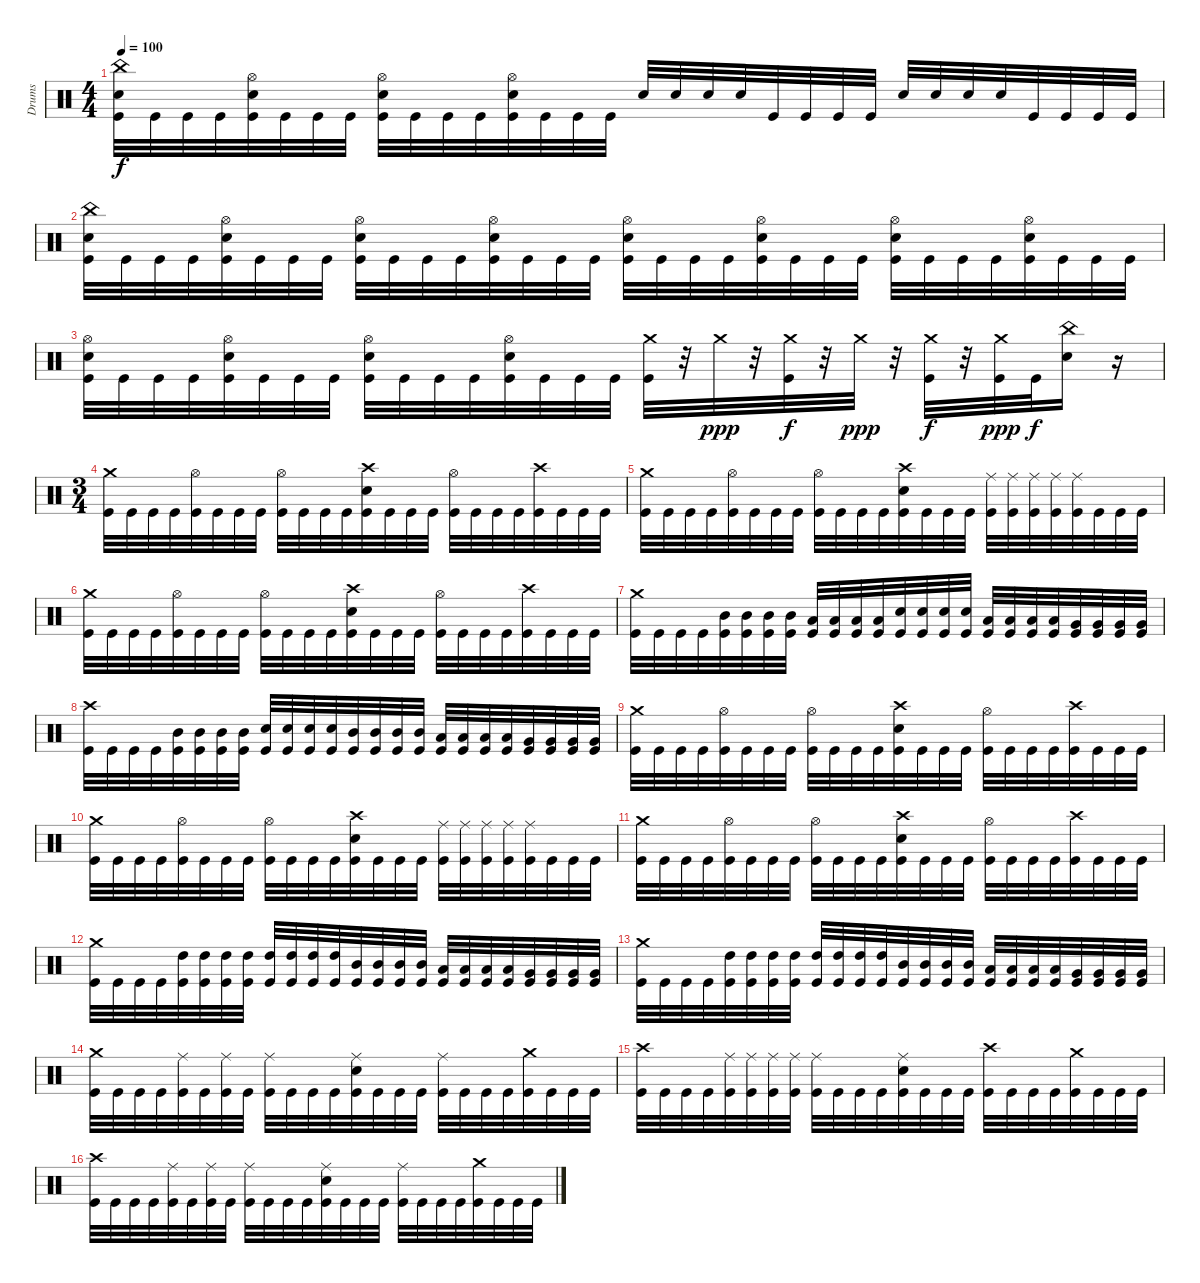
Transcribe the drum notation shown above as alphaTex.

\track ("Drums" "Drums") {instrument percussion}
\staff {score}
\articulation defaults
\ts (4 4)
\tempo 100
\clef neutral
\ks c
("China (hit)" "Snare (hit) 2" "Kick (hit)").32{dy f} "Kick (hit)".32 "Kick (hit)".32 "Kick (hit)".32 ("Hi-Hat (open)" "Snare (hit) 2" "Kick (hit)").32 "Kick (hit)".32 "Kick (hit)".32 "Kick (hit)".32 ("Hi-Hat (open)" "Snare (hit) 2" "Kick (hit)").32 "Kick (hit)".32 "Kick (hit)".32 "Kick (hit)".32 ("Hi-Hat (open)" "Snare (hit) 2" "Kick (hit)").32 "Kick (hit)".32 "Kick (hit)".32 "Kick (hit)".32 "Snare (hit) 2".32 "Snare (hit) 2".32 "Snare (hit) 2".32 "Snare (hit) 2".32 "Kick (hit)".32 "Kick (hit)".32 "Kick (hit)".32 "Kick (hit)".32 "Snare (hit) 2".32 "Snare (hit) 2".32 "Snare (hit) 2".32 "Snare (hit) 2".32 "Kick (hit)".32 "Kick (hit)".32 "Kick (hit)".32 "Kick (hit)".32 |
("China (hit)" "Snare (hit) 2" "Kick (hit)").32 "Kick (hit)".32 "Kick (hit)".32 "Kick (hit)".32 ("Hi-Hat (open)" "Snare (hit) 2" "Kick (hit)").32 "Kick (hit)".32 "Kick (hit)".32 "Kick (hit)".32 ("Hi-Hat (open)" "Snare (hit) 2" "Kick (hit)").32 "Kick (hit)".32 "Kick (hit)".32 "Kick (hit)".32 ("Hi-Hat (open)" "Snare (hit) 2" "Kick (hit)").32 "Kick (hit)".32 "Kick (hit)".32 "Kick (hit)".32 ("Hi-Hat (open)" "Snare (hit) 2" "Kick (hit)").32 "Kick (hit)".32 "Kick (hit)".32 "Kick (hit)".32 ("Hi-Hat (open)" "Snare (hit) 2" "Kick (hit)").32 "Kick (hit)".32 "Kick (hit)".32 "Kick (hit)".32 ("Hi-Hat (open)" "Snare (hit) 2" "Kick (hit)").32 "Kick (hit)".32 "Kick (hit)".32 "Kick (hit)".32 ("Hi-Hat (open)" "Snare (hit) 2" "Kick (hit)").32 "Kick (hit)".32 "Kick (hit)".32 "Kick (hit)".32 |
("Hi-Hat (open)" "Snare (hit) 2" "Kick (hit)").32 "Kick (hit)".32 "Kick (hit)".32 "Kick (hit)".32 ("Hi-Hat (open)" "Snare (hit) 2" "Kick (hit)").32 "Kick (hit)".32 "Kick (hit)".32 "Kick (hit)".32 ("Hi-Hat (open)" "Snare (hit) 2" "Kick (hit)").32 "Kick (hit)".32 "Kick (hit)".32 "Kick (hit)".32 ("Hi-Hat (open)" "Snare (hit) 2" "Kick (hit)").32 "Kick (hit)".32 "Kick (hit)".32 "Kick (hit)".32 ("Crash medium (hit)" "Kick (hit)").32 r.32 "Crash medium (hit)".32{dy ppp} r.32 ("Crash medium (hit)" "Kick (hit)").32{dy f} r.32 "Crash medium (hit)".32{dy ppp} r.32 ("Crash medium (hit)" "Kick (hit)").32{dy f} r.32 ("Crash medium (hit)" "Kick (hit)").32{dy ppp} "Kick (hit)".32{dy f} ("China (hit)" "Snare (hit) 2").16 r.16 |
\ts (3 4)
("Crash medium (hit)" "Kick (hit)").32 "Kick (hit)".32 "Kick (hit)".32 "Kick (hit)".32 ("Hi-Hat (open)" "Kick (hit)").32 "Kick (hit)".32 "Kick (hit)".32 "Kick (hit)".32 ("Hi-Hat (open)" "Kick (hit)").32 "Kick (hit)".32 "Kick (hit)".32 "Kick (hit)".32 ("Crash high (hit)" "Snare (hit) 2" "Kick (hit)").32 "Kick (hit)".32 "Kick (hit)".32 "Kick (hit)".32 ("Hi-Hat (open)" "Kick (hit)").32 "Kick (hit)".32 "Kick (hit)".32 "Kick (hit)".32 ("Crash high (hit)" "Kick (hit)").32 "Kick (hit)".32 "Kick (hit)".32 "Kick (hit)".32 |
("Crash medium (hit)" "Kick (hit)").32 "Kick (hit)".32 "Kick (hit)".32 "Kick (hit)".32 ("Hi-Hat (open)" "Kick (hit)").32 "Kick (hit)".32 "Kick (hit)".32 "Kick (hit)".32 ("Hi-Hat (open)" "Kick (hit)").32 "Kick (hit)".32 "Kick (hit)".32 "Kick (hit)".32 ("Crash high (hit)" "Snare (hit) 2" "Kick (hit)").32 "Kick (hit)".32 "Kick (hit)".32 "Kick (hit)".32 ("Ride (middle)" "Kick (hit)").32 ("Ride (middle)" "Kick (hit)").32 ("Ride (middle)" "Kick (hit)").32 ("Ride (middle)" "Kick (hit)").32 ("Ride (middle)" "Kick (hit)").32 "Kick (hit)".32 "Kick (hit)".32 "Kick (hit)".32 |
("Crash medium (hit)" "Kick (hit)").32 "Kick (hit)".32 "Kick (hit)".32 "Kick (hit)".32 ("Hi-Hat (open)" "Kick (hit)").32 "Kick (hit)".32 "Kick (hit)".32 "Kick (hit)".32 ("Hi-Hat (open)" "Kick (hit)").32 "Kick (hit)".32 "Kick (hit)".32 "Kick (hit)".32 ("Crash high (hit)" "Snare (hit) 2" "Kick (hit)").32 "Kick (hit)".32 "Kick (hit)".32 "Kick (hit)".32 ("Hi-Hat (open)" "Kick (hit)").32 "Kick (hit)".32 "Kick (hit)".32 "Kick (hit)".32 ("Crash high (hit)" "Kick (hit)").32 "Kick (hit)".32 "Kick (hit)".32 "Kick (hit)".32 |
("Crash medium (hit)" "Kick (hit)").32 "Kick (hit)".32 "Kick (hit)".32 "Kick (hit)".32 ("Mid Tom (hit)" "Kick (hit)").32 ("Mid Tom (hit)" "Kick (hit)").32 ("Mid Tom (hit)" "Kick (hit)").32 ("Mid Tom (hit)" "Kick (hit)").32 ("Low Tom (hit)" "Kick (hit)").32 ("Low Tom (hit)" "Kick (hit)").32 ("Low Tom (hit)" "Kick (hit)").32 ("Low Tom (hit)" "Kick (hit)").32 ("Snare (hit) 2" "Kick (hit)").32 ("Snare (hit) 2" "Kick (hit)").32 ("Snare (hit) 2" "Kick (hit)").32 ("Snare (hit) 2" "Kick (hit)").32 ("Low Tom (hit)" "Kick (hit)").32 ("Low Tom (hit)" "Kick (hit)").32 ("Low Tom (hit)" "Kick (hit)").32 ("Low Tom (hit)" "Kick (hit)").32 ("Very Low Tom (hit)" "Kick (hit)").32 ("Very Low Tom (hit)" "Kick (hit)").32 ("Very Low Tom (hit)" "Kick (hit)").32 ("Very Low Tom (hit)" "Kick (hit)").32 |
("Crash high (hit)" "Kick (hit)").32 "Kick (hit)".32 "Kick (hit)".32 "Kick (hit)".32 ("Mid Tom (hit)" "Kick (hit)").32 ("Mid Tom (hit)" "Kick (hit)").32 ("Mid Tom (hit)" "Kick (hit)").32 ("Mid Tom (hit)" "Kick (hit)").32 ("Snare (hit) 2" "Kick (hit)").32 ("Snare (hit) 2" "Kick (hit)").32 ("Snare (hit) 2" "Kick (hit)").32 ("Snare (hit) 2" "Kick (hit)").32 ("Mid Tom (hit)" "Kick (hit)").32 ("Mid Tom (hit)" "Kick (hit)").32 ("Mid Tom (hit)" "Kick (hit)").32 ("Mid Tom (hit)" "Kick (hit)").32 ("Low Tom (hit)" "Kick (hit)").32 ("Low Tom (hit)" "Kick (hit)").32 ("Low Tom (hit)" "Kick (hit)").32 ("Low Tom (hit)" "Kick (hit)").32 ("Very Low Tom (hit)" "Kick (hit)").32 ("Very Low Tom (hit)" "Kick (hit)").32 ("Very Low Tom (hit)" "Kick (hit)").32 ("Very Low Tom (hit)" "Kick (hit)").32 |
("Crash medium (hit)" "Kick (hit)").32 "Kick (hit)".32 "Kick (hit)".32 "Kick (hit)".32 ("Hi-Hat (open)" "Kick (hit)").32 "Kick (hit)".32 "Kick (hit)".32 "Kick (hit)".32 ("Hi-Hat (open)" "Kick (hit)").32 "Kick (hit)".32 "Kick (hit)".32 "Kick (hit)".32 ("Crash high (hit)" "Snare (hit) 2" "Kick (hit)").32 "Kick (hit)".32 "Kick (hit)".32 "Kick (hit)".32 ("Hi-Hat (open)" "Kick (hit)").32 "Kick (hit)".32 "Kick (hit)".32 "Kick (hit)".32 ("Crash high (hit)" "Kick (hit)").32 "Kick (hit)".32 "Kick (hit)".32 "Kick (hit)".32 |
("Crash medium (hit)" "Kick (hit)").32 "Kick (hit)".32 "Kick (hit)".32 "Kick (hit)".32 ("Hi-Hat (open)" "Kick (hit)").32 "Kick (hit)".32 "Kick (hit)".32 "Kick (hit)".32 ("Hi-Hat (open)" "Kick (hit)").32 "Kick (hit)".32 "Kick (hit)".32 "Kick (hit)".32 ("Crash high (hit)" "Snare (hit) 2" "Kick (hit)").32 "Kick (hit)".32 "Kick (hit)".32 "Kick (hit)".32 ("Ride (middle)" "Kick (hit)").32 ("Ride (middle)" "Kick (hit)").32 ("Ride (middle)" "Kick (hit)").32 ("Ride (middle)" "Kick (hit)").32 ("Ride (middle)" "Kick (hit)").32 "Kick (hit)".32 "Kick (hit)".32 "Kick (hit)".32 |
("Crash medium (hit)" "Kick (hit)").32 "Kick (hit)".32 "Kick (hit)".32 "Kick (hit)".32 ("Hi-Hat (open)" "Kick (hit)").32 "Kick (hit)".32 "Kick (hit)".32 "Kick (hit)".32 ("Hi-Hat (open)" "Kick (hit)").32 "Kick (hit)".32 "Kick (hit)".32 "Kick (hit)".32 ("Crash high (hit)" "Snare (hit) 2" "Kick (hit)").32 "Kick (hit)".32 "Kick (hit)".32 "Kick (hit)".32 ("Hi-Hat (open)" "Kick (hit)").32 "Kick (hit)".32 "Kick (hit)".32 "Kick (hit)".32 ("Crash high (hit)" "Kick (hit)").32 "Kick (hit)".32 "Kick (hit)".32 "Kick (hit)".32 |
("Crash medium (hit)" "Kick (hit)").32 "Kick (hit)".32 "Kick (hit)".32 "Kick (hit)".32 ("High Tom (hit)" "Kick (hit)").32 ("High Tom (hit)" "Kick (hit)").32 ("High Tom (hit)" "Kick (hit)").32 ("High Tom (hit)" "Kick (hit)").32 ("High Tom (hit)" "Kick (hit)").32 ("High Tom (hit)" "Kick (hit)").32 ("High Tom (hit)" "Kick (hit)").32 ("High Tom (hit)" "Kick (hit)").32 ("Mid Tom (hit)" "Kick (hit)").32 ("Mid Tom (hit)" "Kick (hit)").32 ("Mid Tom (hit)" "Kick (hit)").32 ("Mid Tom (hit)" "Kick (hit)").32 ("Low Tom (hit)" "Kick (hit)").32 ("Low Tom (hit)" "Kick (hit)").32 ("Low Tom (hit)" "Kick (hit)").32 ("Low Tom (hit)" "Kick (hit)").32 ("Very Low Tom (hit)" "Kick (hit)").32 ("Very Low Tom (hit)" "Kick (hit)").32 ("Very Low Tom (hit)" "Kick (hit)").32 ("Very Low Tom (hit)" "Kick (hit)").32 |
("Crash medium (hit)" "Kick (hit)").32 "Kick (hit)".32 "Kick (hit)".32 "Kick (hit)".32 ("High Tom (hit)" "Kick (hit)").32 ("High Tom (hit)" "Kick (hit)").32 ("High Tom (hit)" "Kick (hit)").32 ("High Tom (hit)" "Kick (hit)").32 ("High Tom (hit)" "Kick (hit)").32 ("High Tom (hit)" "Kick (hit)").32 ("High Tom (hit)" "Kick (hit)").32 ("High Tom (hit)" "Kick (hit)").32 ("Mid Tom (hit)" "Kick (hit)").32 ("Mid Tom (hit)" "Kick (hit)").32 ("Mid Tom (hit)" "Kick (hit)").32 ("Mid Tom (hit)" "Kick (hit)").32 ("Low Tom (hit)" "Kick (hit)").32 ("Low Tom (hit)" "Kick (hit)").32 ("Low Tom (hit)" "Kick (hit)").32 ("Low Tom (hit)" "Kick (hit)").32 ("Very Low Tom (hit)" "Kick (hit)").32 ("Very Low Tom (hit)" "Kick (hit)").32 ("Very Low Tom (hit)" "Kick (hit)").32 ("Very Low Tom (hit)" "Kick (hit)").32 |
("Crash medium (hit)" "Kick (hit)").32 "Kick (hit)".32 "Kick (hit)".32 "Kick (hit)".32 ("Ride (middle)" "Kick (hit)").32 "Kick (hit)".32 ("Ride (middle)" "Kick (hit)").32 "Kick (hit)".32 ("Ride (middle)" "Kick (hit)").32 "Kick (hit)".32 "Kick (hit)".32 "Kick (hit)".32 ("Ride (middle)" "Snare (hit) 2" "Kick (hit)").32 "Kick (hit)".32 "Kick (hit)".32 "Kick (hit)".32 ("Ride (middle)" "Kick (hit)").32 "Kick (hit)".32 "Kick (hit)".32 "Kick (hit)".32 ("Crash medium (hit)" "Kick (hit)").32 "Kick (hit)".32 "Kick (hit)".32 "Kick (hit)".32 |
("Crash high (hit)" "Kick (hit)").32 "Kick (hit)".32 "Kick (hit)".32 "Kick (hit)".32 ("Ride (middle)" "Kick (hit)").32 ("Ride (middle)" "Kick (hit)").32 ("Ride (middle)" "Kick (hit)").32 ("Ride (middle)" "Kick (hit)").32 ("Ride (middle)" "Kick (hit)").32 "Kick (hit)".32 "Kick (hit)".32 "Kick (hit)".32 ("Ride (middle)" "Snare (hit) 2" "Kick (hit)").32 "Kick (hit)".32 "Kick (hit)".32 "Kick (hit)".32 ("Crash high (hit)" "Kick (hit)").32 "Kick (hit)".32 "Kick (hit)".32 "Kick (hit)".32 ("Crash medium (hit)" "Kick (hit)").32 "Kick (hit)".32 "Kick (hit)".32 "Kick (hit)".32 |
("Crash high (hit)" "Kick (hit)").32 "Kick (hit)".32 "Kick (hit)".32 "Kick (hit)".32 ("Ride (middle)" "Kick (hit)").32 "Kick (hit)".32 ("Ride (middle)" "Kick (hit)").32 "Kick (hit)".32 ("Ride (middle)" "Kick (hit)").32 "Kick (hit)".32 "Kick (hit)".32 "Kick (hit)".32 ("Ride (middle)" "Snare (hit) 2" "Kick (hit)").32 "Kick (hit)".32 "Kick (hit)".32 "Kick (hit)".32 ("Ride (middle)" "Kick (hit)").32 "Kick (hit)".32 "Kick (hit)".32 "Kick (hit)".32 ("Crash medium (hit)" "Kick (hit)").32 "Kick (hit)".32 "Kick (hit)".32 "Kick (hit)".32
